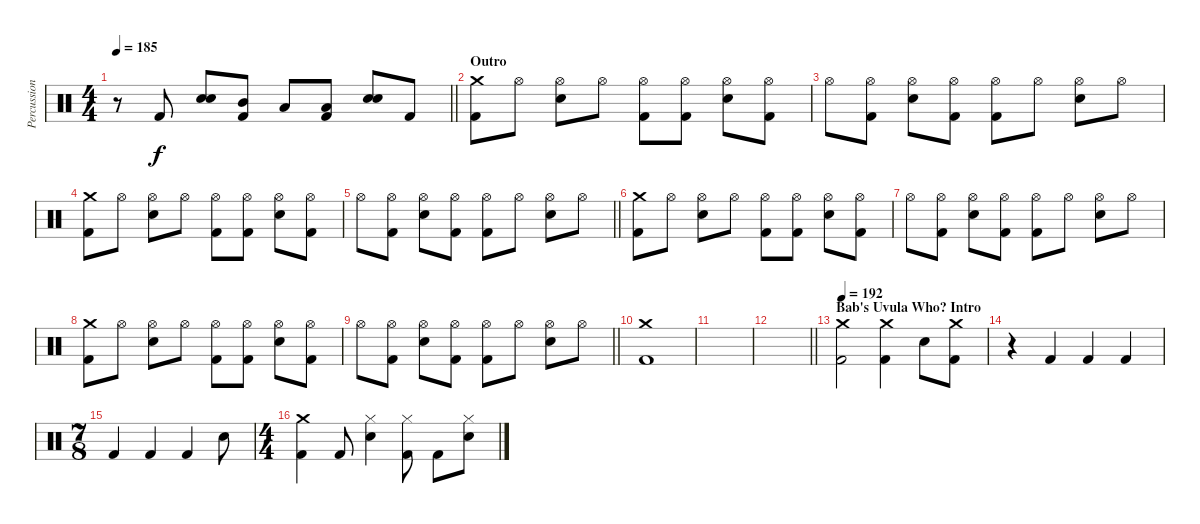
\track ("Percussion" "Percussion") {instrument percussion}
\staff {score}
\articulation defaults
\ts (4 4)
\tempo 185
\clef neutral
\barLineRight lightlight
\ks c
r.8{dy f} "Kick (hit) 2".8 ("Electric Snare (hit)" "Electric Snare (hit)").8 ("Mid Tom (hit)" "Kick (hit) 2").8 "Low Floor Tom (hit)".8 ("Low Floor Tom (hit)" "Kick (hit) 2").8 ("Electric Snare (hit)" "Electric Snare (hit)").8 "Kick (hit) 2".8 |
\section ("" "Outro")
("Crash medium (hit)" "Kick (hit) 2").8 "Hi-Hat (open)".8 ("Hi-Hat (open)" "Electric Snare (hit)").8 "Hi-Hat (open)".8 ("Hi-Hat (open)" "Kick (hit) 2").8 ("Hi-Hat (open)" "Kick (hit) 2").8 ("Hi-Hat (open)" "Electric Snare (hit)").8 ("Hi-Hat (open)" "Kick (hit) 2").8 |
"Hi-Hat (open)".8 ("Hi-Hat (open)" "Kick (hit) 2").8 ("Hi-Hat (open)" "Electric Snare (hit)").8 ("Hi-Hat (open)" "Kick (hit) 2").8 ("Hi-Hat (open)" "Kick (hit) 2").8 "Hi-Hat (open)".8 ("Hi-Hat (open)" "Electric Snare (hit)").8 "Hi-Hat (open)".8 |
("Crash medium (hit)" "Kick (hit) 2").8 "Hi-Hat (open)".8 ("Hi-Hat (open)" "Electric Snare (hit)").8 "Hi-Hat (open)".8 ("Hi-Hat (open)" "Kick (hit) 2").8 ("Hi-Hat (open)" "Kick (hit) 2").8 ("Hi-Hat (open)" "Electric Snare (hit)").8 ("Hi-Hat (open)" "Kick (hit) 2").8 |
\barLineRight lightlight "Hi-Hat (open)".8
("Hi-Hat (open)" "Kick (hit) 2").8 ("Hi-Hat (open)" "Electric Snare (hit)").8 ("Hi-Hat (open)" "Kick (hit) 2").8 ("Hi-Hat (open)" "Kick (hit) 2").8 "Hi-Hat (open)".8 ("Hi-Hat (open)" "Electric Snare (hit)").8 "Hi-Hat (open)".8 |
("Crash medium (hit)" "Kick (hit) 2").8 "Hi-Hat (open)".8 ("Hi-Hat (open)" "Electric Snare (hit)").8 "Hi-Hat (open)".8 ("Hi-Hat (open)" "Kick (hit) 2").8 ("Hi-Hat (open)" "Kick (hit) 2").8 ("Hi-Hat (open)" "Electric Snare (hit)").8 ("Hi-Hat (open)" "Kick (hit) 2").8 |
"Hi-Hat (open)".8 ("Hi-Hat (open)" "Kick (hit) 2").8 ("Hi-Hat (open)" "Electric Snare (hit)").8 ("Hi-Hat (open)" "Kick (hit) 2").8 ("Hi-Hat (open)" "Kick (hit) 2").8 "Hi-Hat (open)".8 ("Hi-Hat (open)" "Electric Snare (hit)").8 "Hi-Hat (open)".8 |
("Crash medium (hit)" "Kick (hit) 2").8 "Hi-Hat (open)".8 ("Hi-Hat (open)" "Electric Snare (hit)").8 "Hi-Hat (open)".8 ("Hi-Hat (open)" "Kick (hit) 2").8 ("Hi-Hat (open)" "Kick (hit) 2").8 ("Hi-Hat (open)" "Electric Snare (hit)").8 ("Hi-Hat (open)" "Kick (hit) 2").8 |
\barLineRight lightlight "Hi-Hat (open)".8
("Hi-Hat (open)" "Kick (hit) 2").8 ("Hi-Hat (open)" "Electric Snare (hit)").8 ("Hi-Hat (open)" "Kick (hit) 2").8 ("Hi-Hat (open)" "Kick (hit) 2").8 "Hi-Hat (open)".8 ("Hi-Hat (open)" "Electric Snare (hit)").8 "Hi-Hat (open)".8 |
("Crash medium (hit)" "Kick (hit) 2").1 |
|
\barLineRight lightlight
|
\section ("" "Bab's Uvula Who? Intro")
\tempo 192
("Crash medium (hit)" "Kick (hit) 2").2 ("Crash medium (hit)" "Kick (hit) 2").4 "Electric Snare (hit)".8 ("Crash medium (hit)" "Kick (hit) 2").8 |
r.4 "Kick (hit) 2".4 "Kick (hit) 2".4 "Kick (hit) 2".4 |
\ts (7 8)
"Kick (hit) 2".4 "Kick (hit) 2".4 "Kick (hit) 2".4 "Electric Snare (hit)".8 |
\ts (4 4)
("Crash medium (hit)" "Kick (hit) 2").4 "Kick (hit) 2".8 ("Hi-Hat (closed)" "Electric Snare (hit)").4 ("Hi-Hat (closed)" "Kick (hit) 2").8 "Kick (hit) 2".8 ("Hi-Hat (closed)" "Electric Snare (hit)").8
